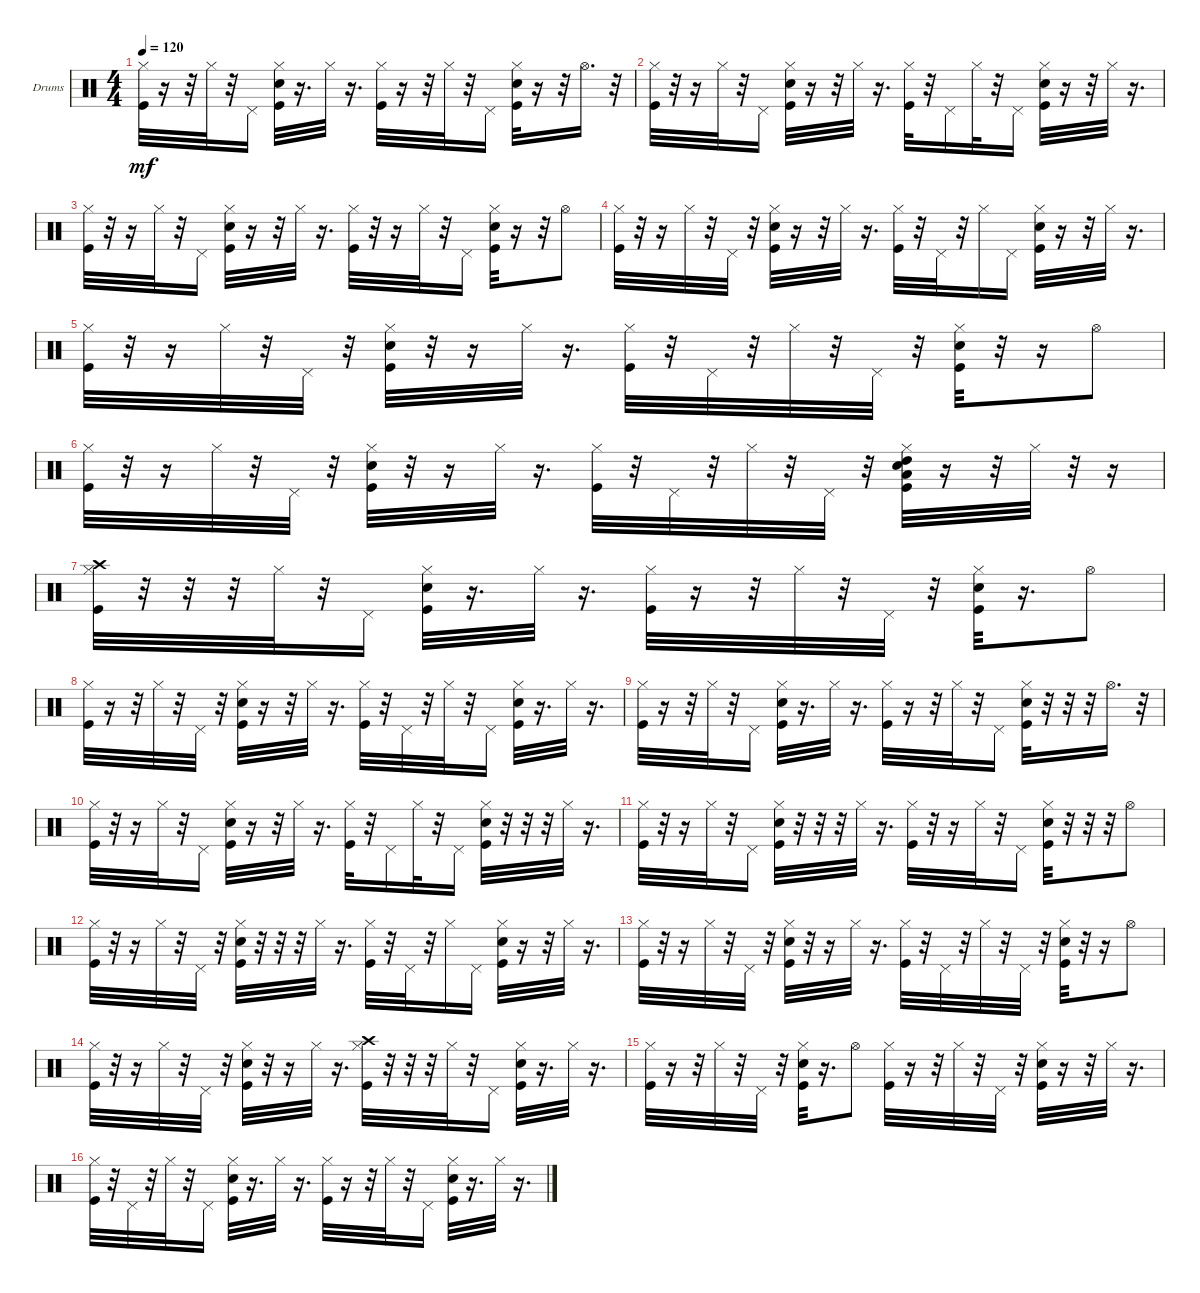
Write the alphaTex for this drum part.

\bracketExtendMode groupsimilarinstruments
\firstSystemTrackNameOrientation horizontal
\otherSystemsTrackNameOrientation horizontal
\track ("Ударные" "Drums") {instrument percussion}
\staff {score}
\articulation defaults
\ts (4 4)
\tempo 120
\clef neutral
\ks c
("Kick (hit)" "Hi-Hat (closed)").32{dy mf} r.16 r.32 "Hi-Hat (closed)".32 r.32 "Pedal Hi-Hat (hit)".16 ("Snare (hit) 2" "Kick (hit)" "Hi-Hat (closed)").32 r.16{d} "Hi-Hat (closed)".32 r.16{d} ("Kick (hit)" "Hi-Hat (closed)").32 r.16 r.32 "Hi-Hat (closed)".32 r.32 "Pedal Hi-Hat (hit)".16 ("Snare (hit) 2" "Kick (hit)" "Hi-Hat (closed)").32 r.16 r.32 "Hi-Hat (open)".16{d} r.32 |
("Kick (hit)" "Hi-Hat (closed)").32 r.32 r.16 "Hi-Hat (closed)".32 r.32 "Pedal Hi-Hat (hit)".16 ("Kick (hit)" "Snare (hit) 2" "Hi-Hat (closed)").32 r.16 r.32 "Hi-Hat (closed)".32 r.16{d} ("Kick (hit)" "Hi-Hat (closed)").32 r.32 "Pedal Hi-Hat (hit)".16 "Hi-Hat (closed)".32 r.32 "Pedal Hi-Hat (hit)".16 ("Snare (hit) 2" "Kick (hit)" "Hi-Hat (closed)").32 r.16 r.32 "Hi-Hat (closed)".32 r.16{d} |
("Kick (hit)" "Hi-Hat (closed)").32 r.32 r.16 "Hi-Hat (closed)".32 r.32 "Pedal Hi-Hat (hit)".16 ("Snare (hit) 2" "Kick (hit)" "Hi-Hat (closed)").32 r.16 r.32 "Hi-Hat (closed)".32 r.16{d} ("Kick (hit)" "Hi-Hat (closed)").32 r.32 r.16 "Hi-Hat (closed)".32 r.32 "Pedal Hi-Hat (hit)".16 ("Snare (hit) 2" "Kick (hit)" "Hi-Hat (closed)").32 r.16 r.32 "Hi-Hat (open)".8 |
("Kick (hit)" "Hi-Hat (closed)").32 r.32 r.16 "Hi-Hat (closed)".32 r.32 "Pedal Hi-Hat (hit)".32 r.32 ("Kick (hit)" "Snare (hit) 2" "Hi-Hat (closed)").32 r.16 r.32 "Hi-Hat (closed)".32 r.16{d} ("Kick (hit)" "Hi-Hat (closed)").32 r.32 "Pedal Hi-Hat (hit)".32 r.32 "Hi-Hat (closed)".16 "Pedal Hi-Hat (hit)".16 ("Snare (hit) 2" "Kick (hit)" "Hi-Hat (closed)").32 r.16 r.32 "Hi-Hat (closed)".32 r.16{d} |
("Kick (hit)" "Hi-Hat (closed)").32 r.32 r.16 "Hi-Hat (closed)".32 r.32 "Pedal Hi-Hat (hit)".32 r.32 ("Kick (hit)" "Snare (hit) 2" "Hi-Hat (closed)").32 r.32 r.16 "Hi-Hat (closed)".32 r.16{d} ("Kick (hit)" "Hi-Hat (closed)").32 r.32 "Pedal Hi-Hat (hit)".32 r.32 "Hi-Hat (closed)".32 r.32 "Pedal Hi-Hat (hit)".32 r.32 ("Snare (hit) 2" "Kick (hit)" "Hi-Hat (closed)").32 r.32 r.16 "Hi-Hat (open)".8 |
("Kick (hit)" "Hi-Hat (closed)").32 r.32 r.16 "Hi-Hat (closed)".32 r.32 "Pedal Hi-Hat (hit)".32 r.32 ("Snare (hit) 2" "Kick (hit)" "Hi-Hat (closed)").32 r.32 r.16 "Hi-Hat (closed)".32 r.16{d} ("Kick (hit)" "Hi-Hat (closed)").32 r.32 "Pedal Hi-Hat (hit)".32 r.32 "Hi-Hat (closed)".32 r.32 "Pedal Hi-Hat (hit)".32 r.32 ("Snare (hit) 2" "Kick (hit)" "Hi-Hat (closed)" "Low Tom (hit)" "High Tom (hit)").32 r.16 r.32 "Hi-Hat (closed)".32 r.32 r.16 |
("Kick (hit)" "Hi-Hat (closed)" "Crash high (hit)").32 r.32 r.32 r.32 "Hi-Hat (closed)".32 r.32 "Pedal Hi-Hat (hit)".16 ("Kick (hit)" "Snare (hit) 2" "Hi-Hat (closed)").32 r.16{d} "Hi-Hat (closed)".32 r.16{d} ("Kick (hit)" "Hi-Hat (closed)").32 r.16 r.32 "Hi-Hat (closed)".32 r.32 "Pedal Hi-Hat (hit)".32 r.32 ("Kick (hit)" "Snare (hit) 2" "Hi-Hat (closed)").32 r.16{d} "Hi-Hat (open)".8 |
("Kick (hit)" "Hi-Hat (closed)").32 r.16 r.32 "Hi-Hat (closed)".32 r.32 "Pedal Hi-Hat (hit)".32 r.32 ("Snare (hit) 2" "Kick (hit)" "Hi-Hat (closed)").32 r.16 r.32 "Hi-Hat (closed)".32 r.16{d} ("Kick (hit)" "Hi-Hat (closed)").32 r.32 "Pedal Hi-Hat (hit)".32 r.32 "Hi-Hat (closed)".32 r.32 "Pedal Hi-Hat (hit)".16 ("Kick (hit)" "Snare (hit) 2" "Hi-Hat (closed)").32 r.16{d} "Hi-Hat (closed)".32 r.16{d} |
("Kick (hit)" "Hi-Hat (closed)").32 r.16 r.32 "Hi-Hat (closed)".32 r.32 "Pedal Hi-Hat (hit)".16 ("Snare (hit) 2" "Kick (hit)" "Hi-Hat (closed)").32 r.16{d} "Hi-Hat (closed)".32 r.16{d} ("Kick (hit)" "Hi-Hat (closed)").32 r.16 r.32 "Hi-Hat (closed)".32 r.32 "Pedal Hi-Hat (hit)".16 ("Snare (hit) 2" "Kick (hit)" "Hi-Hat (closed)").32 r.32 r.32 r.32 "Hi-Hat (open)".16{d} r.32 |
("Kick (hit)" "Hi-Hat (closed)").32 r.32 r.16 "Hi-Hat (closed)".32 r.32 "Pedal Hi-Hat (hit)".16 ("Kick (hit)" "Snare (hit) 2" "Hi-Hat (closed)").32 r.16 r.32 "Hi-Hat (closed)".32 r.16{d} ("Kick (hit)" "Hi-Hat (closed)").32 r.32 "Pedal Hi-Hat (hit)".16 "Hi-Hat (closed)".32 r.32 "Pedal Hi-Hat (hit)".16 ("Snare (hit) 2" "Kick (hit)" "Hi-Hat (closed)").32 r.32 r.32 r.32 "Hi-Hat (closed)".32 r.16{d} |
("Kick (hit)" "Hi-Hat (closed)").32 r.32 r.16 "Hi-Hat (closed)".32 r.32 "Pedal Hi-Hat (hit)".16 ("Snare (hit) 2" "Kick (hit)" "Hi-Hat (closed)").32 r.32 r.32 r.32 "Hi-Hat (closed)".32 r.16{d} ("Kick (hit)" "Hi-Hat (closed)").32 r.32 r.16 "Hi-Hat (closed)".32 r.32 "Pedal Hi-Hat (hit)".16 ("Snare (hit) 2" "Kick (hit)" "Hi-Hat (closed)").32 r.32 r.32 r.32 "Hi-Hat (open)".8 |
("Kick (hit)" "Hi-Hat (closed)").32 r.32 r.16 "Hi-Hat (closed)".32 r.32 "Pedal Hi-Hat (hit)".32 r.32 ("Kick (hit)" "Snare (hit) 2" "Hi-Hat (closed)").32 r.32 r.32 r.32 "Hi-Hat (closed)".32 r.16{d} ("Kick (hit)" "Hi-Hat (closed)").32 r.32 "Pedal Hi-Hat (hit)".32 r.32 "Hi-Hat (closed)".16 "Pedal Hi-Hat (hit)".16 ("Snare (hit) 2" "Kick (hit)" "Hi-Hat (closed)").32 r.16 r.32 "Hi-Hat (closed)".32 r.16{d} |
("Kick (hit)" "Hi-Hat (closed)").32 r.32 r.16 "Hi-Hat (closed)".32 r.32 "Pedal Hi-Hat (hit)".32 r.32 ("Kick (hit)" "Snare (hit) 2" "Hi-Hat (closed)").32 r.32 r.16 "Hi-Hat (closed)".32 r.16{d} ("Kick (hit)" "Hi-Hat (closed)").32 r.32 "Pedal Hi-Hat (hit)".32 r.32 "Hi-Hat (closed)".32 r.32 "Pedal Hi-Hat (hit)".32 r.32 ("Snare (hit) 2" "Kick (hit)" "Hi-Hat (closed)").32 r.32 r.16 "Hi-Hat (open)".8 |
("Kick (hit)" "Hi-Hat (closed)").32 r.32 r.16 "Hi-Hat (closed)".32 r.32 "Pedal Hi-Hat (hit)".32 r.32 ("Snare (hit) 2" "Kick (hit)" "Hi-Hat (closed)").32 r.32 r.16 "Hi-Hat (closed)".32 r.16{d} ("Kick (hit)" "Hi-Hat (closed)" "Crash high (hit)").32 r.32 r.32 r.32 "Hi-Hat (closed)".32 r.32 "Pedal Hi-Hat (hit)".16 ("Kick (hit)" "Snare (hit) 2" "Hi-Hat (closed)").32 r.16{d} "Hi-Hat (closed)".32 r.16{d} |
("Kick (hit)" "Hi-Hat (closed)").32 r.16 r.32 "Hi-Hat (closed)".32 r.32 "Pedal Hi-Hat (hit)".32 r.32 ("Kick (hit)" "Snare (hit) 2" "Hi-Hat (closed)").32 r.16{d} "Hi-Hat (open)".8 ("Kick (hit)" "Hi-Hat (closed)").32 r.16 r.32 "Hi-Hat (closed)".32 r.32 "Pedal Hi-Hat (hit)".32 r.32 ("Snare (hit) 2" "Kick (hit)" "Hi-Hat (closed)").32 r.16 r.32 "Hi-Hat (closed)".32 r.16{d} |
("Kick (hit)" "Hi-Hat (closed)").32 r.32 "Pedal Hi-Hat (hit)".32 r.32 "Hi-Hat (closed)".32 r.32 "Pedal Hi-Hat (hit)".16 ("Kick (hit)" "Snare (hit) 2" "Hi-Hat (closed)").32 r.16{d} "Hi-Hat (closed)".32 r.16{d} ("Kick (hit)" "Hi-Hat (closed)").32 r.16 r.32 "Hi-Hat (closed)".32 r.32 "Pedal Hi-Hat (hit)".16 ("Snare (hit) 2" "Kick (hit)" "Hi-Hat (closed)").32 r.16{d} "Hi-Hat (closed)".32 r.16{d}
